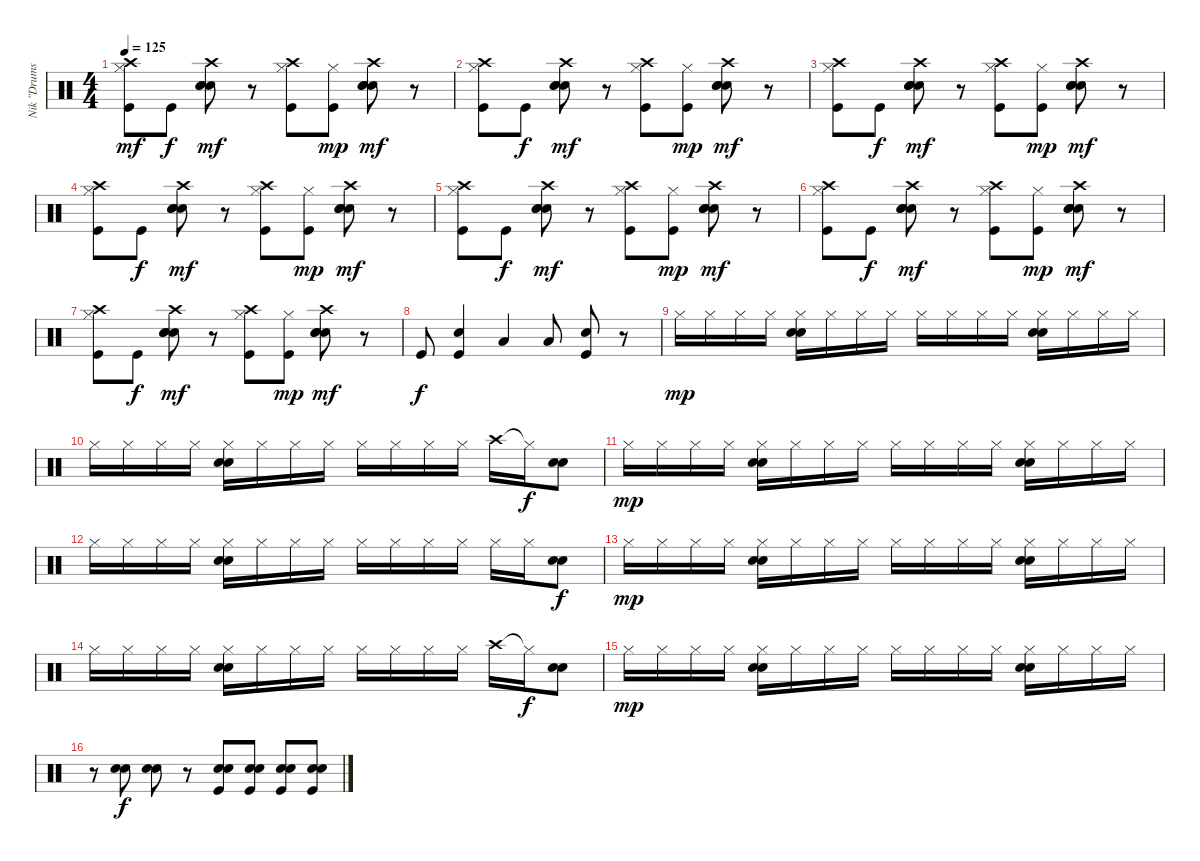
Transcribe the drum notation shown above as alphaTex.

\track ("Nik \"Drums\"" "Nik \"Drums") {instrument percussion}
\staff {score}
\articulation defaults
\ts (4 4)
\tempo 125
\clef neutral
\ks c
("Hi-Hat (closed)" "Crash high (hit)" "Kick (hit)").8{dy mf} "Kick (hit)".8{dy f} ("Electric Snare (hit)" "Crash high (hit)" "Electric Snare (hit)" "Snare (hit) 2").8{dy mf} r.8 ("Hi-Hat (closed)" "Crash high (hit)" "Kick (hit)").8 ("Hi-Hat (closed)" "Kick (hit)").8{dy mp} ("Electric Snare (hit)" "Crash high (hit)" "Electric Snare (hit)" "Snare (hit) 2").8{dy mf} r.8 |
("Hi-Hat (closed)" "Crash high (hit)" "Kick (hit)").8 "Kick (hit)".8{dy f} ("Electric Snare (hit)" "Crash high (hit)" "Electric Snare (hit)" "Snare (hit) 2").8{dy mf} r.8 ("Hi-Hat (closed)" "Crash high (hit)" "Kick (hit)").8 ("Hi-Hat (closed)" "Kick (hit)").8{dy mp} ("Electric Snare (hit)" "Crash high (hit)" "Electric Snare (hit)" "Snare (hit) 2").8{dy mf} r.8 |
("Hi-Hat (closed)" "Crash high (hit)" "Kick (hit)").8 "Kick (hit)".8{dy f} ("Electric Snare (hit)" "Crash high (hit)" "Electric Snare (hit)" "Snare (hit) 2").8{dy mf} r.8 ("Hi-Hat (closed)" "Crash high (hit)" "Kick (hit)").8 ("Hi-Hat (closed)" "Kick (hit)").8{dy mp} ("Electric Snare (hit)" "Crash high (hit)" "Electric Snare (hit)" "Snare (hit) 2").8{dy mf} r.8 |
("Hi-Hat (closed)" "Crash high (hit)" "Kick (hit)").8 "Kick (hit)".8{dy f} ("Electric Snare (hit)" "Crash high (hit)" "Electric Snare (hit)" "Snare (hit) 2").8{dy mf} r.8 ("Hi-Hat (closed)" "Crash high (hit)" "Kick (hit)").8 ("Hi-Hat (closed)" "Kick (hit)").8{dy mp} ("Electric Snare (hit)" "Crash high (hit)" "Electric Snare (hit)" "Snare (hit) 2").8{dy mf} r.8 |
("Hi-Hat (closed)" "Crash high (hit)" "Kick (hit)").8 "Kick (hit)".8{dy f} ("Electric Snare (hit)" "Crash high (hit)" "Electric Snare (hit)" "Snare (hit) 2").8{dy mf} r.8 ("Hi-Hat (closed)" "Crash high (hit)" "Kick (hit)").8 ("Hi-Hat (closed)" "Kick (hit)").8{dy mp} ("Electric Snare (hit)" "Crash high (hit)" "Electric Snare (hit)" "Snare (hit) 2").8{dy mf} r.8 |
("Hi-Hat (closed)" "Crash high (hit)" "Kick (hit)").8 "Kick (hit)".8{dy f} ("Electric Snare (hit)" "Crash high (hit)" "Electric Snare (hit)" "Snare (hit) 2").8{dy mf} r.8 ("Hi-Hat (closed)" "Crash high (hit)" "Kick (hit)").8 ("Hi-Hat (closed)" "Kick (hit)").8{dy mp} ("Electric Snare (hit)" "Crash high (hit)" "Electric Snare (hit)" "Snare (hit) 2").8{dy mf} r.8 |
("Hi-Hat (closed)" "Crash high (hit)" "Kick (hit)").8 "Kick (hit)".8{dy f} ("Electric Snare (hit)" "Crash high (hit)" "Electric Snare (hit)" "Snare (hit) 2").8{dy mf} r.8 ("Hi-Hat (closed)" "Crash high (hit)" "Kick (hit)").8 ("Hi-Hat (closed)" "Kick (hit)").8{dy mp} ("Electric Snare (hit)" "Crash high (hit)" "Electric Snare (hit)" "Snare (hit) 2").8{dy mf} r.8 |
"Kick (hit)".8{dy f} ("Snare (hit) 2" "Kick (hit)").4 "Low Floor Tom (hit)".4 "Low Floor Tom (hit)".8 ("Kick (hit)" "Snare (hit) 2").8 r.8 |
"Hi-Hat (closed)".16{dy mp} "Hi-Hat (closed)".16 "Hi-Hat (closed)".16 "Hi-Hat (closed)".16 ("Hi-Hat (closed)" "Electric Snare (hit)" "Electric Snare (hit)").16 "Hi-Hat (closed)".16 "Hi-Hat (closed)".16 "Hi-Hat (closed)".16 "Hi-Hat (closed)".16 "Hi-Hat (closed)".16 "Hi-Hat (closed)".16 "Hi-Hat (closed)".16 ("Hi-Hat (closed)" "Electric Snare (hit)" "Electric Snare (hit)").16 "Hi-Hat (closed)".16 "Hi-Hat (closed)".16 "Hi-Hat (closed)".16 |
"Hi-Hat (closed)".16 "Hi-Hat (closed)".16 "Hi-Hat (closed)".16 "Hi-Hat (closed)".16 ("Hi-Hat (closed)" "Electric Snare (hit)" "Electric Snare (hit)").16 "Hi-Hat (closed)".16 "Hi-Hat (closed)".16 "Hi-Hat (closed)".16 "Hi-Hat (closed)".16 "Hi-Hat (closed)".16 "Hi-Hat (closed)".16 "Hi-Hat (closed)".16 "Crash high (hit)".16 "Hi-Hat (closed)"{t}.16{dy f} ("Electric Snare (hit)" "Electric Snare (hit)").8 |
"Hi-Hat (closed)".16{dy mp} "Hi-Hat (closed)".16 "Hi-Hat (closed)".16 "Hi-Hat (closed)".16 ("Hi-Hat (closed)" "Electric Snare (hit)" "Electric Snare (hit)").16 "Hi-Hat (closed)".16 "Hi-Hat (closed)".16 "Hi-Hat (closed)".16 "Hi-Hat (closed)".16 "Hi-Hat (closed)".16 "Hi-Hat (closed)".16 "Hi-Hat (closed)".16 ("Hi-Hat (closed)" "Electric Snare (hit)" "Electric Snare (hit)").16 "Hi-Hat (closed)".16 "Hi-Hat (closed)".16 "Hi-Hat (closed)".16 |
"Hi-Hat (closed)".16 "Hi-Hat (closed)".16 "Hi-Hat (closed)".16 "Hi-Hat (closed)".16 ("Hi-Hat (closed)" "Electric Snare (hit)" "Electric Snare (hit)").16 "Hi-Hat (closed)".16 "Hi-Hat (closed)".16 "Hi-Hat (closed)".16 "Hi-Hat (closed)".16 "Hi-Hat (closed)".16 "Hi-Hat (closed)".16 "Hi-Hat (closed)".16 "Hi-Hat (closed)".16 "Hi-Hat (closed)".16 ("Electric Snare (hit)" "Electric Snare (hit)").8{dy f} |
"Hi-Hat (closed)".16{dy mp} "Hi-Hat (closed)".16 "Hi-Hat (closed)".16 "Hi-Hat (closed)".16 ("Hi-Hat (closed)" "Electric Snare (hit)" "Electric Snare (hit)").16 "Hi-Hat (closed)".16 "Hi-Hat (closed)".16 "Hi-Hat (closed)".16 "Hi-Hat (closed)".16 "Hi-Hat (closed)".16 "Hi-Hat (closed)".16 "Hi-Hat (closed)".16 ("Hi-Hat (closed)" "Electric Snare (hit)" "Electric Snare (hit)").16 "Hi-Hat (closed)".16 "Hi-Hat (closed)".16 "Hi-Hat (closed)".16 |
"Hi-Hat (closed)".16 "Hi-Hat (closed)".16 "Hi-Hat (closed)".16 "Hi-Hat (closed)".16 ("Hi-Hat (closed)" "Electric Snare (hit)" "Electric Snare (hit)").16 "Hi-Hat (closed)".16 "Hi-Hat (closed)".16 "Hi-Hat (closed)".16 "Hi-Hat (closed)".16 "Hi-Hat (closed)".16 "Hi-Hat (closed)".16 "Hi-Hat (closed)".16 "Crash high (hit)".16 "Hi-Hat (closed)"{t}.16{dy f} ("Electric Snare (hit)" "Electric Snare (hit)").8 |
"Hi-Hat (closed)".16{dy mp} "Hi-Hat (closed)".16 "Hi-Hat (closed)".16 "Hi-Hat (closed)".16 ("Hi-Hat (closed)" "Electric Snare (hit)" "Electric Snare (hit)").16 "Hi-Hat (closed)".16 "Hi-Hat (closed)".16 "Hi-Hat (closed)".16 "Hi-Hat (closed)".16 "Hi-Hat (closed)".16 "Hi-Hat (closed)".16 "Hi-Hat (closed)".16 ("Hi-Hat (closed)" "Electric Snare (hit)" "Electric Snare (hit)").16 "Hi-Hat (closed)".16 "Hi-Hat (closed)".16 "Hi-Hat (closed)".16 |
r.8{balance 8} ("Snare (hit) 2" "Electric Snare (hit)").8{dy f} ("Snare (hit) 2" "Electric Snare (hit)").8 r.8 ("Kick (hit)" "Electric Snare (hit)" "Electric Snare (hit)").8 ("Kick (hit)" "Electric Snare (hit)" "Electric Snare (hit)").8 ("Kick (hit)" "Electric Snare (hit)" "Snare (hit) 2").8 ("Kick (hit)" "Electric Snare (hit)" "Snare (hit) 2").8
